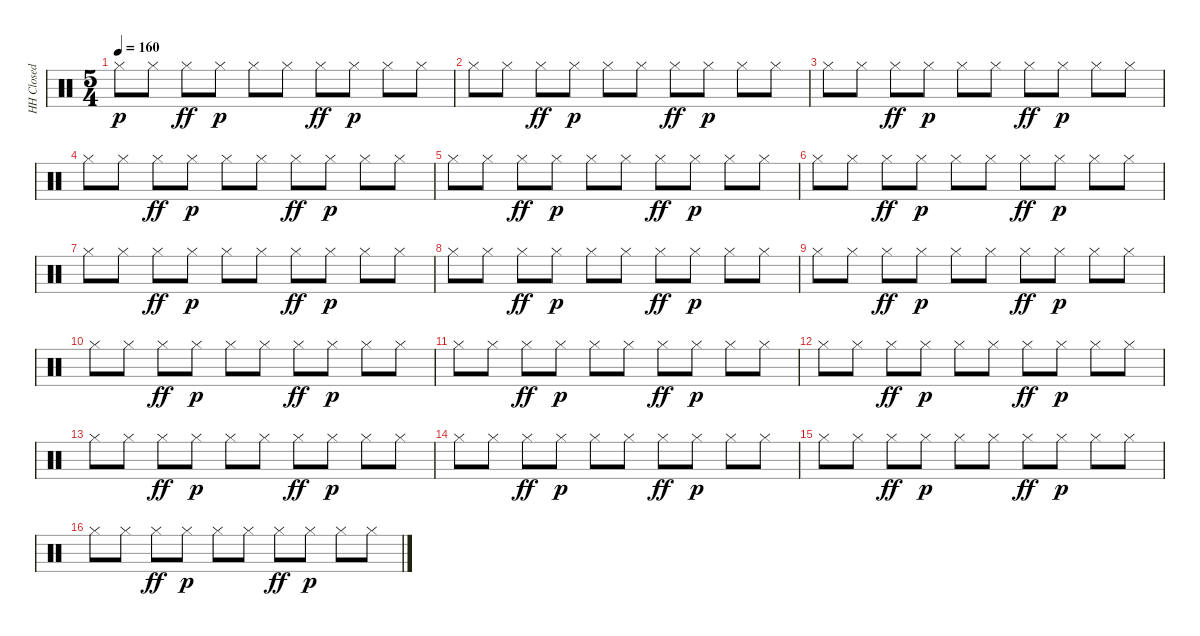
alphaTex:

\track ("HH Closed" "HH Closed") {instrument percussion}
\staff {score}
\articulation defaults
\ts (5 4)
\tempo 160
\clef neutral
\ks c "Hi-Hat (closed)".8{dy p} "Hi-Hat (closed)".8 "Hi-Hat (closed)".8{dy ff} "Hi-Hat (closed)".8{dy p} "Hi-Hat (closed)".8 "Hi-Hat (closed)".8 "Hi-Hat (closed)".8{dy ff} "Hi-Hat (closed)".8{dy p} "Hi-Hat (closed)".8 "Hi-Hat (closed)".8
|
"Hi-Hat (closed)".8 "Hi-Hat (closed)".8 "Hi-Hat (closed)".8{dy ff} "Hi-Hat (closed)".8{dy p} "Hi-Hat (closed)".8 "Hi-Hat (closed)".8 "Hi-Hat (closed)".8{dy ff} "Hi-Hat (closed)".8{dy p} "Hi-Hat (closed)".8 "Hi-Hat (closed)".8 |
"Hi-Hat (closed)".8 "Hi-Hat (closed)".8 "Hi-Hat (closed)".8{dy ff} "Hi-Hat (closed)".8{dy p} "Hi-Hat (closed)".8 "Hi-Hat (closed)".8 "Hi-Hat (closed)".8{dy ff} "Hi-Hat (closed)".8{dy p} "Hi-Hat (closed)".8 "Hi-Hat (closed)".8 |
"Hi-Hat (closed)".8 "Hi-Hat (closed)".8 "Hi-Hat (closed)".8{dy ff} "Hi-Hat (closed)".8{dy p} "Hi-Hat (closed)".8 "Hi-Hat (closed)".8 "Hi-Hat (closed)".8{dy ff} "Hi-Hat (closed)".8{dy p} "Hi-Hat (closed)".8 "Hi-Hat (closed)".8 |
"Hi-Hat (closed)".8 "Hi-Hat (closed)".8 "Hi-Hat (closed)".8{dy ff} "Hi-Hat (closed)".8{dy p} "Hi-Hat (closed)".8 "Hi-Hat (closed)".8 "Hi-Hat (closed)".8{dy ff} "Hi-Hat (closed)".8{dy p} "Hi-Hat (closed)".8 "Hi-Hat (closed)".8 |
"Hi-Hat (closed)".8 "Hi-Hat (closed)".8 "Hi-Hat (closed)".8{dy ff} "Hi-Hat (closed)".8{dy p} "Hi-Hat (closed)".8 "Hi-Hat (closed)".8 "Hi-Hat (closed)".8{dy ff} "Hi-Hat (closed)".8{dy p} "Hi-Hat (closed)".8 "Hi-Hat (closed)".8 |
"Hi-Hat (closed)".8 "Hi-Hat (closed)".8 "Hi-Hat (closed)".8{dy ff} "Hi-Hat (closed)".8{dy p} "Hi-Hat (closed)".8 "Hi-Hat (closed)".8 "Hi-Hat (closed)".8{dy ff} "Hi-Hat (closed)".8{dy p} "Hi-Hat (closed)".8 "Hi-Hat (closed)".8 |
"Hi-Hat (closed)".8 "Hi-Hat (closed)".8 "Hi-Hat (closed)".8{dy ff} "Hi-Hat (closed)".8{dy p} "Hi-Hat (closed)".8 "Hi-Hat (closed)".8 "Hi-Hat (closed)".8{dy ff} "Hi-Hat (closed)".8{dy p} "Hi-Hat (closed)".8 "Hi-Hat (closed)".8 |
"Hi-Hat (closed)".8 "Hi-Hat (closed)".8 "Hi-Hat (closed)".8{dy ff} "Hi-Hat (closed)".8{dy p} "Hi-Hat (closed)".8 "Hi-Hat (closed)".8 "Hi-Hat (closed)".8{dy ff} "Hi-Hat (closed)".8{dy p} "Hi-Hat (closed)".8 "Hi-Hat (closed)".8 |
"Hi-Hat (closed)".8 "Hi-Hat (closed)".8 "Hi-Hat (closed)".8{dy ff} "Hi-Hat (closed)".8{dy p} "Hi-Hat (closed)".8 "Hi-Hat (closed)".8 "Hi-Hat (closed)".8{dy ff} "Hi-Hat (closed)".8{dy p} "Hi-Hat (closed)".8 "Hi-Hat (closed)".8 |
"Hi-Hat (closed)".8 "Hi-Hat (closed)".8 "Hi-Hat (closed)".8{dy ff} "Hi-Hat (closed)".8{dy p} "Hi-Hat (closed)".8 "Hi-Hat (closed)".8 "Hi-Hat (closed)".8{dy ff} "Hi-Hat (closed)".8{dy p} "Hi-Hat (closed)".8 "Hi-Hat (closed)".8 |
"Hi-Hat (closed)".8 "Hi-Hat (closed)".8 "Hi-Hat (closed)".8{dy ff} "Hi-Hat (closed)".8{dy p} "Hi-Hat (closed)".8 "Hi-Hat (closed)".8 "Hi-Hat (closed)".8{dy ff} "Hi-Hat (closed)".8{dy p} "Hi-Hat (closed)".8 "Hi-Hat (closed)".8 |
"Hi-Hat (closed)".8 "Hi-Hat (closed)".8 "Hi-Hat (closed)".8{dy ff} "Hi-Hat (closed)".8{dy p} "Hi-Hat (closed)".8 "Hi-Hat (closed)".8 "Hi-Hat (closed)".8{dy ff} "Hi-Hat (closed)".8{dy p} "Hi-Hat (closed)".8 "Hi-Hat (closed)".8 |
"Hi-Hat (closed)".8 "Hi-Hat (closed)".8 "Hi-Hat (closed)".8{dy ff} "Hi-Hat (closed)".8{dy p} "Hi-Hat (closed)".8 "Hi-Hat (closed)".8 "Hi-Hat (closed)".8{dy ff} "Hi-Hat (closed)".8{dy p} "Hi-Hat (closed)".8 "Hi-Hat (closed)".8 |
"Hi-Hat (closed)".8 "Hi-Hat (closed)".8 "Hi-Hat (closed)".8{dy ff} "Hi-Hat (closed)".8{dy p} "Hi-Hat (closed)".8 "Hi-Hat (closed)".8 "Hi-Hat (closed)".8{dy ff} "Hi-Hat (closed)".8{dy p} "Hi-Hat (closed)".8 "Hi-Hat (closed)".8 |
"Hi-Hat (closed)".8 "Hi-Hat (closed)".8 "Hi-Hat (closed)".8{dy ff} "Hi-Hat (closed)".8{dy p} "Hi-Hat (closed)".8 "Hi-Hat (closed)".8 "Hi-Hat (closed)".8{dy ff} "Hi-Hat (closed)".8{dy p} "Hi-Hat (closed)".8 "Hi-Hat (closed)".8
